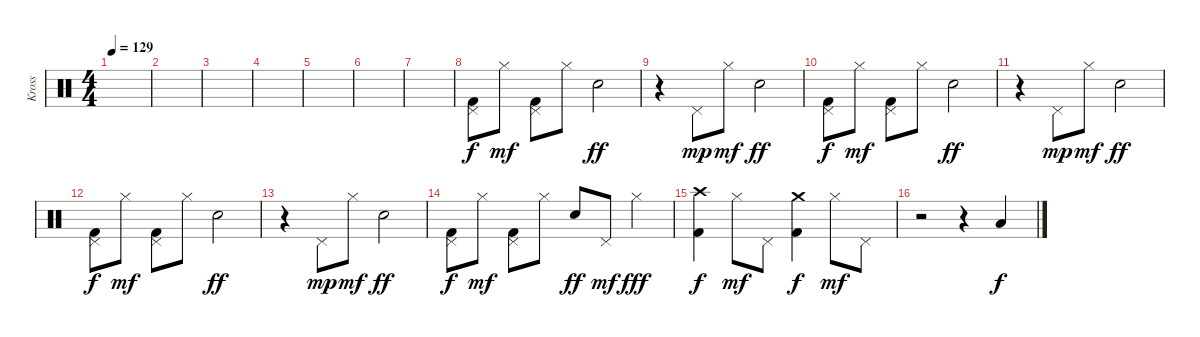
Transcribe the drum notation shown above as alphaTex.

\track ("Kross" "Kross") {instrument percussion}
\staff {score}
\articulation defaults
\ts (4 4)
\tempo 129
\clef neutral
\ks c
|
|
|
|
|
|
|
("Pedal Hi-Hat (hit)" "Kick (hit) 2").8 "Hi-Hat (closed)".8{dy mf} ("Pedal Hi-Hat (hit)" "Kick (hit) 2").8 "Hi-Hat (closed)".8 "Electric Snare (hit)".2{dy ff} |
r.4 "Pedal Hi-Hat (hit)".8{dy mp} "Hi-Hat (closed)".8{dy mf} "Electric Snare (hit)".2{dy ff} |
("Pedal Hi-Hat (hit)" "Kick (hit) 2").8{dy f} "Hi-Hat (closed)".8{dy mf} ("Pedal Hi-Hat (hit)" "Kick (hit) 2").8 "Hi-Hat (closed)".8 "Electric Snare (hit)".2{dy ff} |
r.4 "Pedal Hi-Hat (hit)".8{dy mp} "Hi-Hat (closed)".8{dy mf} "Electric Snare (hit)".2{dy ff} |
("Pedal Hi-Hat (hit)" "Kick (hit) 2").8{dy f} "Hi-Hat (closed)".8{dy mf} ("Pedal Hi-Hat (hit)" "Kick (hit) 2").8 "Hi-Hat (closed)".8 "Electric Snare (hit)".2{dy ff} |
r.4 "Pedal Hi-Hat (hit)".8{dy mp} "Hi-Hat (closed)".8{dy mf} "Electric Snare (hit)".2{dy ff} |
("Pedal Hi-Hat (hit)" "Kick (hit) 2").8{dy f} "Hi-Hat (closed)".8{dy mf} ("Pedal Hi-Hat (hit)" "Kick (hit) 2").8 "Hi-Hat (closed)".8 "Electric Snare (hit)".8{dy ff} "Pedal Hi-Hat (hit)".8{dy mf} "Hi-Hat (closed)".4{dy fff} |
("Crash high (hit)" "Kick (hit) 2").4{dy f} "Hi-Hat (closed)".8{dy mf} "Pedal Hi-Hat (hit)".8 ("Crash medium (hit)" "Kick (hit) 2").4{dy f} "Hi-Hat (closed)".8{dy mf} "Pedal Hi-Hat (hit)".8 |
r.2 r.4 "Low Floor Tom (hit)".4{dy f}
